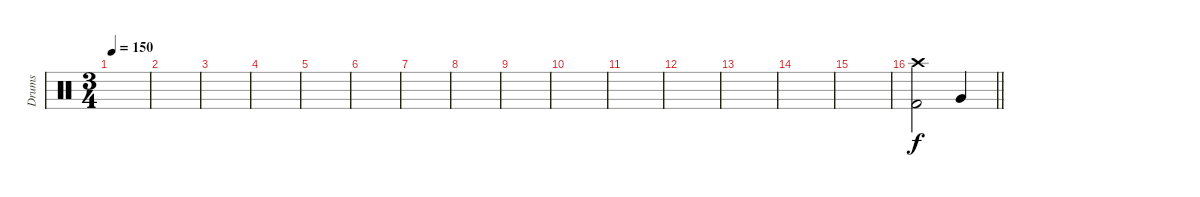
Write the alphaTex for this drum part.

\track ("Drums" "Drums") {instrument percussion}
\staff {score}
\articulation defaults
\ts (3 4)
\tempo 150
\clef neutral
\ks c
|
|
|
|
|
|
|
|
|
|
|
|
|
|
|
\barLineRight lightlight
("Crash high (hit)" "Kick (hit) 2").2 "Very Low Tom (hit)".4
